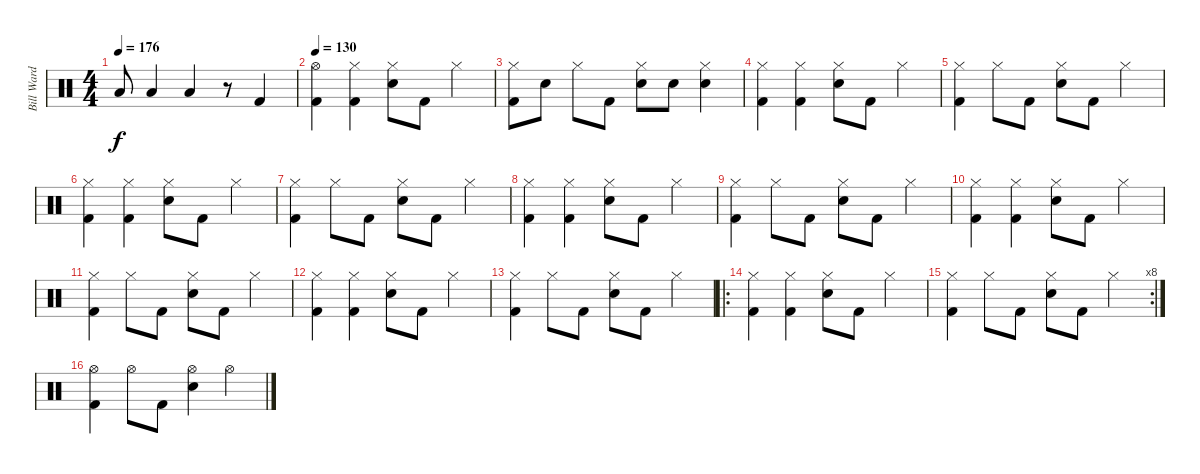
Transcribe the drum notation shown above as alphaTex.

\track ("Bill Ward" "Bill Ward") {instrument percussion}
\staff {score}
\articulation defaults
\ts (4 4)
\tempo 176
\clef neutral
\ks c "Low Floor Tom (hit)".8{dy f} "Low Floor Tom (hit)".4 "Low Floor Tom (hit)".4
r.8 "Kick (hit) 2".4 |
\tempo 130
("Hi-Hat (open)" "Kick (hit) 2").4 ("Hi-Hat (closed)" "Kick (hit) 2").4 ("Hi-Hat (closed)" "Snare (hit) 2").8 "Kick (hit) 2".8 "Hi-Hat (closed)".4 |
("Hi-Hat (closed)" "Kick (hit) 2").8 "Snare (hit) 2".8 "Hi-Hat (closed)".8 "Kick (hit) 2".8 ("Hi-Hat (closed)" "Snare (hit) 2").8 "Snare (hit) 2".8 ("Hi-Hat (closed)" "Snare (hit) 2").4 |
("Hi-Hat (closed)" "Kick (hit) 2").4 ("Hi-Hat (closed)" "Kick (hit) 2").4 ("Hi-Hat (closed)" "Snare (hit) 2").8 "Kick (hit) 2".8 "Hi-Hat (closed)".4 |
("Hi-Hat (closed)" "Kick (hit) 2").4 "Hi-Hat (closed)".8 "Kick (hit) 2".8 ("Hi-Hat (closed)" "Snare (hit) 2").8 "Kick (hit) 2".8 "Hi-Hat (closed)".4 |
("Hi-Hat (closed)" "Kick (hit) 2").4 ("Hi-Hat (closed)" "Kick (hit) 2").4 ("Hi-Hat (closed)" "Snare (hit) 2").8 "Kick (hit) 2".8 "Hi-Hat (closed)".4 |
("Hi-Hat (closed)" "Kick (hit) 2").4 "Hi-Hat (closed)".8 "Kick (hit) 2".8 ("Hi-Hat (closed)" "Snare (hit) 2").8 "Kick (hit) 2".8 "Hi-Hat (closed)".4 |
("Hi-Hat (closed)" "Kick (hit) 2").4 ("Hi-Hat (closed)" "Kick (hit) 2").4 ("Hi-Hat (closed)" "Snare (hit) 2").8 "Kick (hit) 2".8 "Hi-Hat (closed)".4 |
("Hi-Hat (closed)" "Kick (hit) 2").4 "Hi-Hat (closed)".8 "Kick (hit) 2".8 ("Hi-Hat (closed)" "Snare (hit) 2").8 "Kick (hit) 2".8 "Hi-Hat (closed)".4 |
("Hi-Hat (closed)" "Kick (hit) 2").4 ("Hi-Hat (closed)" "Kick (hit) 2").4 ("Hi-Hat (closed)" "Snare (hit) 2").8 "Kick (hit) 2".8 "Hi-Hat (closed)".4 |
("Hi-Hat (closed)" "Kick (hit) 2").4 "Hi-Hat (closed)".8 "Kick (hit) 2".8 ("Hi-Hat (closed)" "Snare (hit) 2").8 "Kick (hit) 2".8 "Hi-Hat (closed)".4 |
("Hi-Hat (closed)" "Kick (hit) 2").4 ("Hi-Hat (closed)" "Kick (hit) 2").4 ("Hi-Hat (closed)" "Snare (hit) 2").8 "Kick (hit) 2".8 "Hi-Hat (closed)".4 |
("Hi-Hat (closed)" "Kick (hit) 2").4 "Hi-Hat (closed)".8 "Kick (hit) 2".8 ("Hi-Hat (closed)" "Snare (hit) 2").8 "Kick (hit) 2".8 "Hi-Hat (closed)".4 |
\ro
("Hi-Hat (closed)" "Kick (hit) 2").4 ("Hi-Hat (closed)" "Kick (hit) 2").4 ("Hi-Hat (closed)" "Snare (hit) 2").8 "Kick (hit) 2".8 "Hi-Hat (closed)".4 |
\rc 8
("Hi-Hat (closed)" "Kick (hit) 2").4 "Hi-Hat (closed)".8 "Kick (hit) 2".8 ("Hi-Hat (closed)" "Snare (hit) 2").8 "Kick (hit) 2".8 "Hi-Hat (closed)".4 |
("Hi-Hat (open)" "Kick (hit) 2").4 "Hi-Hat (open)".8 "Kick (hit) 2".8 ("Hi-Hat (open)" "Snare (hit) 2").4 "Hi-Hat (open)".4
